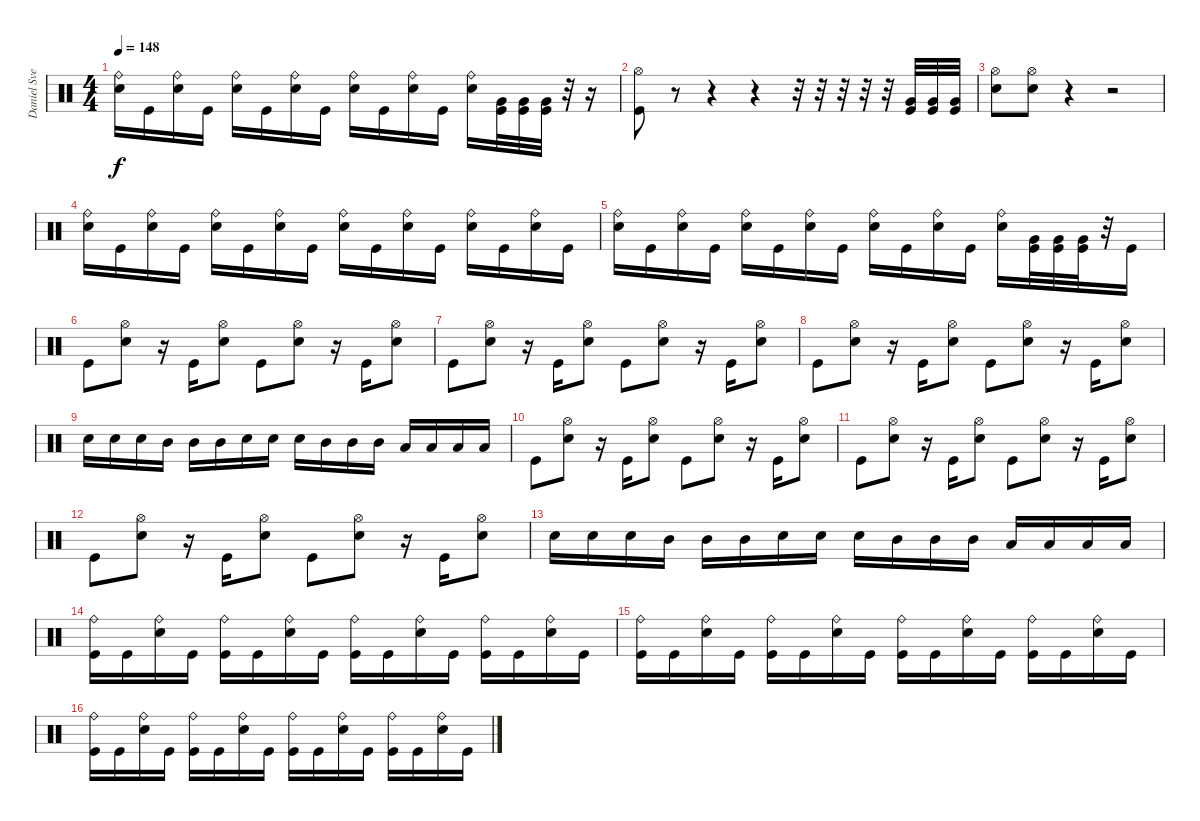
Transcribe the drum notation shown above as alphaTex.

\track ("Daniel Svenson" "Daniel Sve") {instrument percussion}
\staff {score}
\articulation defaults
\ts (4 4)
\tempo 148
\clef neutral
\ks c
("Electric Snare (hit)" "Ride (bell)").16{dy f} "Kick (hit)".16 ("Electric Snare (hit)" "Ride (bell)").16 "Kick (hit)".16 ("Electric Snare (hit)" "Ride (bell)").16 "Kick (hit)".16 ("Electric Snare (hit)" "Ride (bell)").16 "Kick (hit)".16 ("Electric Snare (hit)" "Ride (bell)").16 "Kick (hit)".16 ("Electric Snare (hit)" "Ride (bell)").16 "Kick (hit)".16 ("Electric Snare (hit)" "Ride (bell)").16 ("Kick (hit)" "Very Low Tom (hit)").32 ("Kick (hit)" "Very Low Tom (hit)").32 ("Kick (hit)" "Very Low Tom (hit)").32 r.32 r.16 |
("Kick (hit)" "Hi-Hat (open)").8 r.8 r.4 r.4 r.32 r.32 r.32 r.32 r.32 ("Kick (hit)" "Very Low Tom (hit)").32 ("Kick (hit)" "Very Low Tom (hit)").32 ("Kick (hit)" "Very Low Tom (hit)").32 |
("Electric Snare (hit)" "Hi-Hat (open)").8 ("Electric Snare (hit)" "Hi-Hat (open)").8 r.4 r.2 |
("Electric Snare (hit)" "Ride (bell)").16 "Kick (hit)".16 ("Electric Snare (hit)" "Ride (bell)").16 "Kick (hit)".16 ("Electric Snare (hit)" "Ride (bell)").16 "Kick (hit)".16 ("Electric Snare (hit)" "Ride (bell)").16 "Kick (hit)".16 ("Electric Snare (hit)" "Ride (bell)").16 "Kick (hit)".16 ("Electric Snare (hit)" "Ride (bell)").16 "Kick (hit)".16 ("Electric Snare (hit)" "Ride (bell)").16 "Kick (hit)".16 ("Electric Snare (hit)" "Ride (bell)").16 "Kick (hit)".16 |
("Electric Snare (hit)" "Ride (bell)").16 "Kick (hit)".16 ("Electric Snare (hit)" "Ride (bell)").16 "Kick (hit)".16 ("Electric Snare (hit)" "Ride (bell)").16 "Kick (hit)".16 ("Electric Snare (hit)" "Ride (bell)").16 "Kick (hit)".16 ("Electric Snare (hit)" "Ride (bell)").16 "Kick (hit)".16 ("Electric Snare (hit)" "Ride (bell)").16 "Kick (hit)".16 ("Electric Snare (hit)" "Ride (bell)").16 ("Kick (hit)" "Very Low Tom (hit)").32 ("Kick (hit)" "Very Low Tom (hit)").32 ("Kick (hit)" "Very Low Tom (hit)").32 r.32 "Kick (hit)".16 |
"Kick (hit)".8 ("Electric Snare (hit)" "Hi-Hat (open)").8 r.16 "Kick (hit)".16 ("Electric Snare (hit)" "Hi-Hat (open)").8 "Kick (hit)".8 ("Electric Snare (hit)" "Hi-Hat (open)").8 r.16 "Kick (hit)".16 ("Electric Snare (hit)" "Hi-Hat (open)").8 |
"Kick (hit)".8 ("Electric Snare (hit)" "Hi-Hat (open)").8 r.16 "Kick (hit)".16 ("Electric Snare (hit)" "Hi-Hat (open)").8 "Kick (hit)".8 ("Electric Snare (hit)" "Hi-Hat (open)").8 r.16 "Kick (hit)".16 ("Electric Snare (hit)" "Hi-Hat (open)").8 |
"Kick (hit)".8 ("Electric Snare (hit)" "Hi-Hat (open)").8 r.16 "Kick (hit)".16 ("Electric Snare (hit)" "Hi-Hat (open)").8 "Kick (hit)".8 ("Electric Snare (hit)" "Hi-Hat (open)").8 r.16 "Kick (hit)".16 ("Electric Snare (hit)" "Hi-Hat (open)").8 |
"Electric Snare (hit)".16 "Electric Snare (hit)".16 "Electric Snare (hit)".16 "Mid Tom (hit)".16 "Mid Tom (hit)".16 "Mid Tom (hit)".16 "Electric Snare (hit)".16 "Electric Snare (hit)".16 "Electric Snare (hit)".16 "Mid Tom (hit)".16 "Mid Tom (hit)".16 "Mid Tom (hit)".16 "Low Tom (hit)".16 "Low Tom (hit)".16 "Low Tom (hit)".16 "Low Tom (hit)".16 |
"Kick (hit)".8 ("Electric Snare (hit)" "Hi-Hat (open)").8 r.16 "Kick (hit)".16 ("Electric Snare (hit)" "Hi-Hat (open)").8 "Kick (hit)".8 ("Electric Snare (hit)" "Hi-Hat (open)").8 r.16 "Kick (hit)".16 ("Electric Snare (hit)" "Hi-Hat (open)").8 |
"Kick (hit)".8 ("Electric Snare (hit)" "Hi-Hat (open)").8 r.16 "Kick (hit)".16 ("Electric Snare (hit)" "Hi-Hat (open)").8 "Kick (hit)".8 ("Electric Snare (hit)" "Hi-Hat (open)").8 r.16 "Kick (hit)".16 ("Electric Snare (hit)" "Hi-Hat (open)").8 |
"Kick (hit)".8 ("Electric Snare (hit)" "Hi-Hat (open)").8 r.16 "Kick (hit)".16 ("Electric Snare (hit)" "Hi-Hat (open)").8 "Kick (hit)".8 ("Electric Snare (hit)" "Hi-Hat (open)").8 r.16 "Kick (hit)".16 ("Electric Snare (hit)" "Hi-Hat (open)").8 |
"Electric Snare (hit)".16 "Electric Snare (hit)".16 "Electric Snare (hit)".16 "Mid Tom (hit)".16 "Mid Tom (hit)".16 "Mid Tom (hit)".16 "Electric Snare (hit)".16 "Electric Snare (hit)".16 "Electric Snare (hit)".16 "Mid Tom (hit)".16 "Mid Tom (hit)".16 "Mid Tom (hit)".16 "Low Tom (hit)".16 "Low Tom (hit)".16 "Low Tom (hit)".16 "Low Tom (hit)".16 |
("Kick (hit)" "Ride (bell)").16 "Kick (hit)".16 ("Electric Snare (hit)" "Ride (bell)").16 "Kick (hit)".16 ("Kick (hit)" "Ride (bell)").16 "Kick (hit)".16 ("Electric Snare (hit)" "Ride (bell)").16 "Kick (hit)".16 ("Kick (hit)" "Ride (bell)").16 "Kick (hit)".16 ("Electric Snare (hit)" "Ride (bell)").16 "Kick (hit)".16 ("Kick (hit)" "Ride (bell)").16 "Kick (hit)".16 ("Electric Snare (hit)" "Ride (bell)").16 "Kick (hit)".16 |
("Kick (hit)" "Ride (bell)").16 "Kick (hit)".16 ("Electric Snare (hit)" "Ride (bell)").16 "Kick (hit)".16 ("Kick (hit)" "Ride (bell)").16 "Kick (hit)".16 ("Electric Snare (hit)" "Ride (bell)").16 "Kick (hit)".16 ("Kick (hit)" "Ride (bell)").16 "Kick (hit)".16 ("Electric Snare (hit)" "Ride (bell)").16 "Kick (hit)".16 ("Kick (hit)" "Ride (bell)").16 "Kick (hit)".16 ("Electric Snare (hit)" "Ride (bell)").16 "Kick (hit)".16 |
("Kick (hit)" "Ride (bell)").16 "Kick (hit)".16 ("Electric Snare (hit)" "Ride (bell)").16 "Kick (hit)".16 ("Kick (hit)" "Ride (bell)").16 "Kick (hit)".16 ("Electric Snare (hit)" "Ride (bell)").16 "Kick (hit)".16 ("Kick (hit)" "Ride (bell)").16 "Kick (hit)".16 ("Electric Snare (hit)" "Ride (bell)").16 "Kick (hit)".16 ("Kick (hit)" "Ride (bell)").16 "Kick (hit)".16 ("Electric Snare (hit)" "Ride (bell)").16 "Kick (hit)".16
